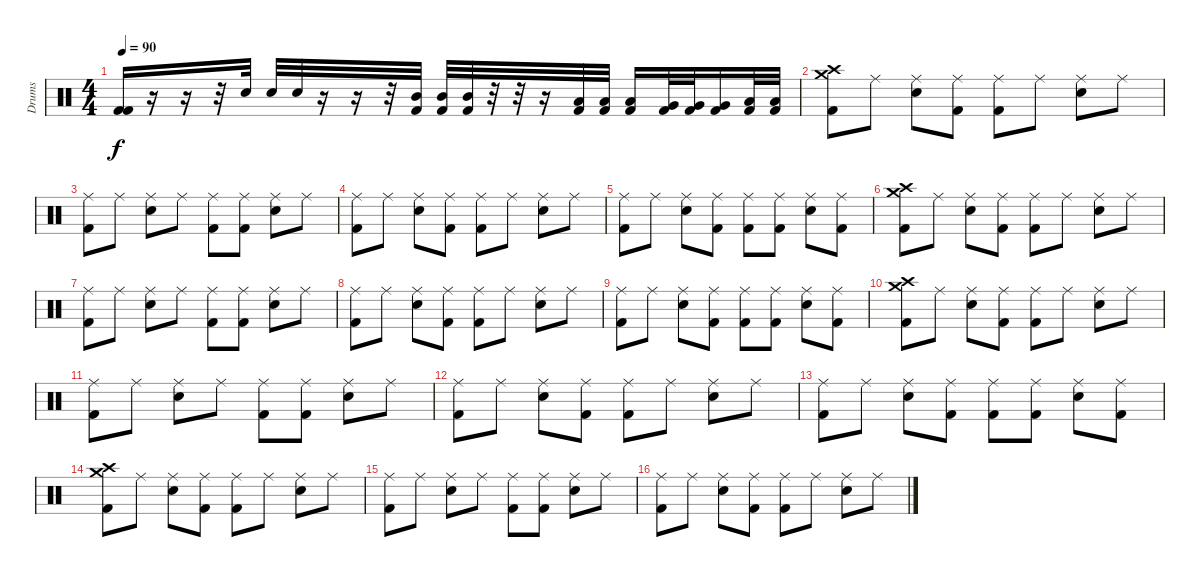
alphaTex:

\track ("Drums" "Drums") {instrument percussion}
\staff {score}
\articulation defaults
\ts (4 4)
\tempo 90
\clef neutral
\ks c
("Kick (hit) 2" "Kick (hit) 2").16{dy f} r.16 r.16 r.32 "Snare (hit) 2".32 "Snare (hit) 2".32 "Snare (hit) 2".32 r.16 r.16 r.32 ("Mid Tom (hit)" "Kick (hit) 2").32 ("Mid Tom (hit)" "Kick (hit) 2").32 ("Mid Tom (hit)" "Kick (hit) 2").32 r.32 r.32 r.16 ("Low Tom (hit)" "Kick (hit) 2").32 ("Low Tom (hit)" "Kick (hit) 2").32 ("Low Tom (hit)" "Kick (hit) 2").16 ("Very Low Tom (hit)" "Kick (hit) 2").32 ("Very Low Tom (hit)" "Kick (hit) 2").32 ("Very Low Tom (hit)" "Kick (hit) 2").16 ("Low Floor Tom (hit)" "Kick (hit) 2").32 ("Low Floor Tom (hit)" "Kick (hit) 2").32 |
("Crash medium (hit)" "Crash high (hit)" "Kick (hit) 2").8 "Ride (middle)".8 ("Ride (middle)" "Snare (hit) 2").8 ("Ride (middle)" "Kick (hit) 2").8 ("Ride (middle)" "Kick (hit) 2").8 "Ride (middle)".8 ("Ride (middle)" "Snare (hit) 2").8 "Ride (middle)".8 |
("Ride (middle)" "Kick (hit) 2").8 "Ride (middle)".8 ("Ride (middle)" "Snare (hit) 2").8 "Ride (middle)".8 ("Ride (middle)" "Kick (hit) 2").8 ("Ride (middle)" "Kick (hit) 2").8 ("Ride (middle)" "Snare (hit) 2").8 "Ride (middle)".8 |
("Ride (middle)" "Kick (hit) 2").8 "Ride (middle)".8 ("Ride (middle)" "Snare (hit) 2").8 ("Ride (middle)" "Kick (hit) 2").8 ("Ride (middle)" "Kick (hit) 2").8 "Ride (middle)".8 ("Ride (middle)" "Snare (hit) 2").8 "Ride (middle)".8 |
("Ride (middle)" "Kick (hit) 2").8 "Ride (middle)".8 ("Ride (middle)" "Snare (hit) 2").8 ("Ride (middle)" "Kick (hit) 2").8 ("Ride (middle)" "Kick (hit) 2").8 ("Ride (middle)" "Kick (hit) 2").8 ("Ride (middle)" "Snare (hit) 2").8 ("Ride (middle)" "Kick (hit) 2").8 |
("Crash medium (hit)" "Crash high (hit)" "Kick (hit) 2").8 "Ride (middle)".8 ("Ride (middle)" "Snare (hit) 2").8 ("Ride (middle)" "Kick (hit) 2").8 ("Ride (middle)" "Kick (hit) 2").8 "Ride (middle)".8 ("Ride (middle)" "Snare (hit) 2").8 "Ride (middle)".8 |
("Ride (middle)" "Kick (hit) 2").8 "Ride (middle)".8 ("Ride (middle)" "Snare (hit) 2").8 "Ride (middle)".8 ("Ride (middle)" "Kick (hit) 2").8 ("Ride (middle)" "Kick (hit) 2").8 ("Ride (middle)" "Snare (hit) 2").8 "Ride (middle)".8 |
("Ride (middle)" "Kick (hit) 2").8 "Ride (middle)".8 ("Ride (middle)" "Snare (hit) 2").8 ("Ride (middle)" "Kick (hit) 2").8 ("Ride (middle)" "Kick (hit) 2").8 "Ride (middle)".8 ("Ride (middle)" "Snare (hit) 2").8 "Ride (middle)".8 |
("Ride (middle)" "Kick (hit) 2").8 "Ride (middle)".8 ("Ride (middle)" "Snare (hit) 2").8 ("Ride (middle)" "Kick (hit) 2").8 ("Ride (middle)" "Kick (hit) 2").8 ("Ride (middle)" "Kick (hit) 2").8 ("Ride (middle)" "Snare (hit) 2").8 ("Ride (middle)" "Kick (hit) 2").8 |
("Crash medium (hit)" "Crash high (hit)" "Kick (hit) 2").8 "Ride (middle)".8 ("Ride (middle)" "Snare (hit) 2").8 ("Ride (middle)" "Kick (hit) 2").8 ("Ride (middle)" "Kick (hit) 2").8 "Ride (middle)".8 ("Ride (middle)" "Snare (hit) 2").8 "Ride (middle)".8 |
("Ride (middle)" "Kick (hit) 2").8 "Ride (middle)".8 ("Ride (middle)" "Snare (hit) 2").8 "Ride (middle)".8 ("Ride (middle)" "Kick (hit) 2").8 ("Ride (middle)" "Kick (hit) 2").8 ("Ride (middle)" "Snare (hit) 2").8 "Ride (middle)".8 |
("Ride (middle)" "Kick (hit) 2").8 "Ride (middle)".8 ("Ride (middle)" "Snare (hit) 2").8 ("Ride (middle)" "Kick (hit) 2").8 ("Ride (middle)" "Kick (hit) 2").8 "Ride (middle)".8 ("Ride (middle)" "Snare (hit) 2").8 "Ride (middle)".8 |
("Ride (middle)" "Kick (hit) 2").8 "Ride (middle)".8 ("Ride (middle)" "Snare (hit) 2").8 ("Ride (middle)" "Kick (hit) 2").8 ("Ride (middle)" "Kick (hit) 2").8 ("Ride (middle)" "Kick (hit) 2").8 ("Ride (middle)" "Snare (hit) 2").8 ("Ride (middle)" "Kick (hit) 2").8 |
("Crash medium (hit)" "Crash high (hit)" "Kick (hit) 2").8 "Ride (middle)".8 ("Ride (middle)" "Snare (hit) 2").8 ("Ride (middle)" "Kick (hit) 2").8 ("Ride (middle)" "Kick (hit) 2").8 "Ride (middle)".8 ("Ride (middle)" "Snare (hit) 2").8 "Ride (middle)".8 |
("Ride (middle)" "Kick (hit) 2").8 "Ride (middle)".8 ("Ride (middle)" "Snare (hit) 2").8 "Ride (middle)".8 ("Ride (middle)" "Kick (hit) 2").8 ("Ride (middle)" "Kick (hit) 2").8 ("Ride (middle)" "Snare (hit) 2").8 "Ride (middle)".8 |
("Ride (middle)" "Kick (hit) 2").8 "Ride (middle)".8 ("Ride (middle)" "Snare (hit) 2").8 ("Ride (middle)" "Kick (hit) 2").8 ("Ride (middle)" "Kick (hit) 2").8 "Ride (middle)".8 ("Ride (middle)" "Snare (hit) 2").8 "Ride (middle)".8
